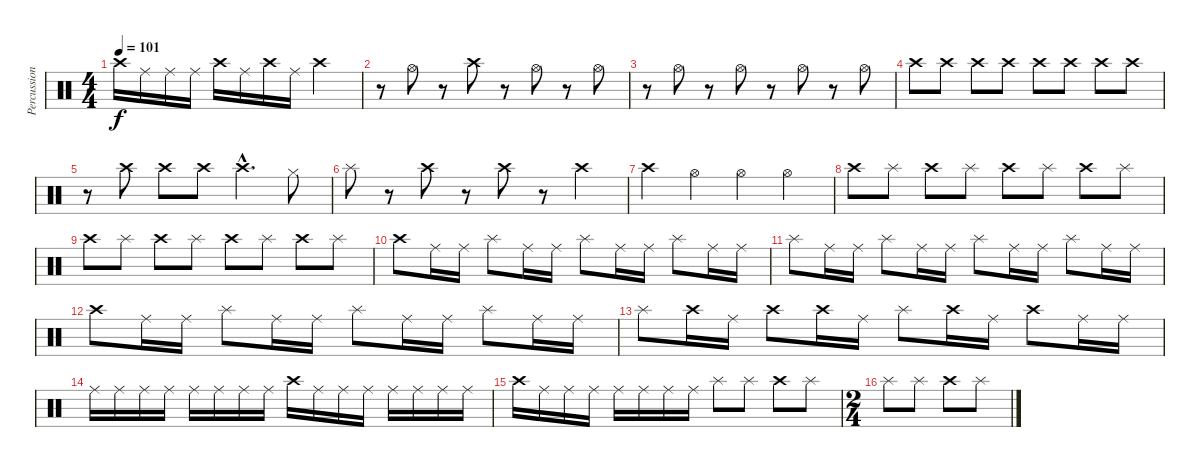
\track ("Percussion2" "Percussion") {instrument percussion}
\staff {score}
\articulation defaults
\ts (4 4)
\tempo 101
\clef neutral
\ks c "Crash high (hit)".16{dy f} "Ride (middle)".16 "Ride (middle)".16 "Ride (middle)".16 "Crash high (hit)".16 "Ride (middle)".16 "Crash high (hit)".16 "Ride (middle)".16 "Crash high (hit)".2
|
r.8 "Hi-Hat (open)".8 r.8 "Crash high (hit)".8 r.8 "Hi-Hat (open)".8 r.8 "Hi-Hat (open)".8 |
r.8 "Hi-Hat (open)".8 r.8 "Hi-Hat (open)".8 r.8 "Hi-Hat (open)".8 r.8 "Hi-Hat (open)".8 |
"Crash high (hit)".8 "Crash high (hit)".8 "Crash high (hit)".8 "Crash high (hit)".8 "Crash high (hit)".8 "Crash high (hit)".8 "Crash high (hit)".8 "Crash high (hit)".8 |
r.8 "Crash high (hit)".8 "Crash high (hit)".8 "Crash high (hit)".8 "Crash high (hit)"{hac}.4{d} "Hi-Hat (closed)".8 |
"Splash (hit)".8 r.8 "Crash high (hit)".8 r.8 "Crash high (hit)".8 r.8 "Crash high (hit)".4 |
"Crash high (hit)".4 "Hi-Hat (open)".4 "Hi-Hat (open)".4 "Hi-Hat (open)".4 |
"Crash high (hit)".8 "Splash (hit)".8 "Crash high (hit)".8 "Splash (hit)".8 "Crash high (hit)".8 "Splash (hit)".8 "Crash high (hit)".8 "Splash (hit)".8 |
"Crash high (hit)".8 "Splash (hit)".8 "Crash high (hit)".8 "Splash (hit)".8 "Crash high (hit)".8 "Splash (hit)".8 "Crash high (hit)".8 "Splash (hit)".8 |
"Crash high (hit)".8 "Ride (middle)".16 "Ride (middle)".16 "Splash (hit)".8 "Ride (middle)".16 "Ride (middle)".16 "Splash (hit)".8 "Ride (middle)".16 "Ride (middle)".16 "Splash (hit)".8 "Ride (middle)".16 "Ride (middle)".16 |
"Splash (hit)".8 "Ride (middle)".16 "Ride (middle)".16 "Splash (hit)".8 "Ride (middle)".16 "Ride (middle)".16 "Splash (hit)".8 "Ride (middle)".16 "Ride (middle)".16 "Splash (hit)".8 "Ride (middle)".16 "Ride (middle)".16 |
"Crash high (hit)".8 "Ride (middle)".16 "Ride (middle)".16 "Splash (hit)".8 "Ride (middle)".16 "Ride (middle)".16 "Splash (hit)".8 "Ride (middle)".16 "Ride (middle)".16 "Splash (hit)".8 "Ride (middle)".16 "Ride (middle)".16 |
"Splash (hit)".8 "Crash high (hit)".16 "Ride (middle)".16 "Crash high (hit)".8 "Crash high (hit)".16 "Ride (middle)".16 "Splash (hit)".8 "Crash high (hit)".16 "Ride (middle)".16 "Crash high (hit)".8 "Ride (middle)".16 "Ride (middle)".16 |
"Ride (middle)".16 "Ride (middle)".16 "Ride (middle)".16 "Ride (middle)".16 "Ride (middle)".16 "Ride (middle)".16 "Ride (middle)".16 "Ride (middle)".16 "Crash high (hit)".16 "Ride (middle)".16 "Ride (middle)".16 "Ride (middle)".16 "Ride (middle)".16 "Ride (middle)".16 "Ride (middle)".16 "Ride (middle)".16 |
"Crash high (hit)".16 "Ride (middle)".16 "Ride (middle)".16 "Ride (middle)".16 "Ride (middle)".16 "Ride (middle)".16 "Ride (middle)".16 "Ride (middle)".16 "Splash (hit)".8 "Splash (hit)".8 "Crash high (hit)".8 "Splash (hit)".8 |
\ts (2 4)
"Splash (hit)".8 "Splash (hit)".8 "Crash high (hit)".8 "Splash (hit)".8
